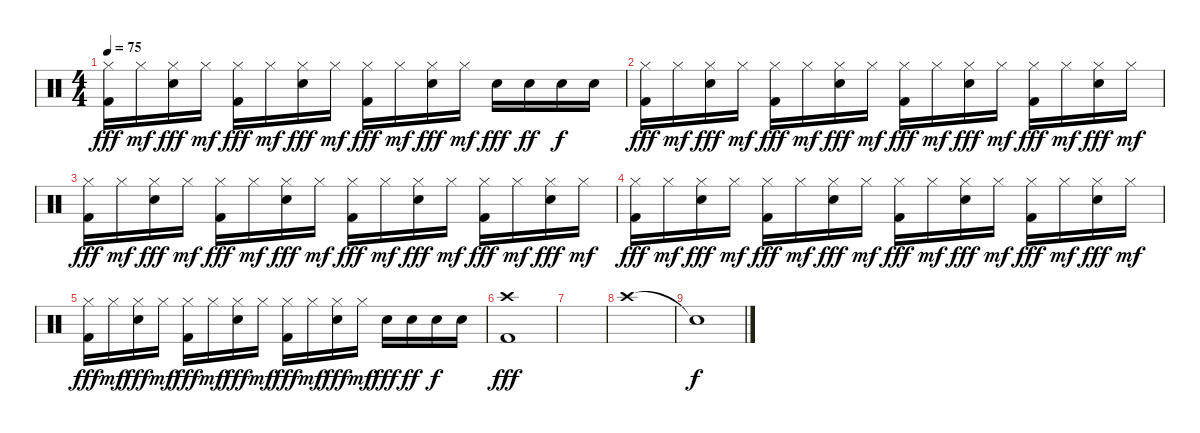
\track "" {instrument percussion}
\staff {score}
\articulation defaults
\ts (4 4)
\tempo 75
\clef neutral
\ks c
("Hi-Hat (closed)" "Kick (hit) 2").16{dy fff} "Hi-Hat (closed)".16{dy mf} ("Hi-Hat (closed)" "Snare (hit) 2").16{dy fff} "Hi-Hat (closed)".16{dy mf} ("Hi-Hat (closed)" "Kick (hit) 2").16{dy fff} "Hi-Hat (closed)".16{dy mf} ("Hi-Hat (closed)" "Snare (hit) 2").16{dy fff} "Hi-Hat (closed)".16{dy mf} ("Hi-Hat (closed)" "Kick (hit) 2").16{dy fff} "Hi-Hat (closed)".16{dy mf} ("Hi-Hat (closed)" "Snare (hit) 2").16{dy fff} "Hi-Hat (closed)".16{dy mf} "Snare (hit) 2".16{dy fff} "Snare (hit) 2".16{dy ff} "Snare (hit) 2".16{dy f} "Snare (hit) 2".16 |
("Hi-Hat (closed)" "Kick (hit) 2").16{dy fff} "Hi-Hat (closed)".16{dy mf} ("Hi-Hat (closed)" "Snare (hit) 2").16{dy fff} "Hi-Hat (closed)".16{dy mf} ("Hi-Hat (closed)" "Kick (hit) 2").16{dy fff} "Hi-Hat (closed)".16{dy mf} ("Hi-Hat (closed)" "Snare (hit) 2").16{dy fff} "Hi-Hat (closed)".16{dy mf} ("Hi-Hat (closed)" "Kick (hit) 2").16{dy fff} "Hi-Hat (closed)".16{dy mf} ("Hi-Hat (closed)" "Snare (hit) 2").16{dy fff} "Hi-Hat (closed)".16{txt "" dy mf} ("Hi-Hat (closed)" "Kick (hit) 2").16{dy fff} "Hi-Hat (closed)".16{dy mf} ("Hi-Hat (closed)" "Snare (hit) 2").16{dy fff} "Hi-Hat (closed)".16{dy mf} |
("Hi-Hat (closed)" "Kick (hit) 2").16{dy fff} "Hi-Hat (closed)".16{dy mf} ("Hi-Hat (closed)" "Snare (hit) 2").16{dy fff} "Hi-Hat (closed)".16{dy mf} ("Hi-Hat (closed)" "Kick (hit) 2").16{dy fff} "Hi-Hat (closed)".16{dy mf} ("Hi-Hat (closed)" "Snare (hit) 2").16{dy fff} "Hi-Hat (closed)".16{dy mf} ("Hi-Hat (closed)" "Kick (hit) 2").16{dy fff} "Hi-Hat (closed)".16{dy mf} ("Hi-Hat (closed)" "Snare (hit) 2").16{dy fff} "Hi-Hat (closed)".16{dy mf} ("Hi-Hat (closed)" "Kick (hit) 2").16{dy fff} "Hi-Hat (closed)".16{dy mf} ("Hi-Hat (closed)" "Snare (hit) 2").16{dy fff} "Hi-Hat (closed)".16{dy mf} |
("Hi-Hat (closed)" "Kick (hit) 2").16{dy fff} "Hi-Hat (closed)".16{dy mf} ("Hi-Hat (closed)" "Snare (hit) 2").16{dy fff} "Hi-Hat (closed)".16{dy mf} ("Hi-Hat (closed)" "Kick (hit) 2").16{dy fff} "Hi-Hat (closed)".16{dy mf} ("Hi-Hat (closed)" "Snare (hit) 2").16{dy fff} "Hi-Hat (closed)".16{dy mf} ("Hi-Hat (closed)" "Kick (hit) 2").16{dy fff} "Hi-Hat (closed)".16{dy mf} ("Hi-Hat (closed)" "Snare (hit) 2").16{dy fff} "Hi-Hat (closed)".16{dy mf} ("Hi-Hat (closed)" "Kick (hit) 2").16{dy fff} "Hi-Hat (closed)".16{dy mf} ("Hi-Hat (closed)" "Snare (hit) 2").16{dy fff} "Hi-Hat (closed)".16{dy mf} |
("Hi-Hat (closed)" "Kick (hit) 2").16{dy fff} "Hi-Hat (closed)".16{dy mf} ("Hi-Hat (closed)" "Snare (hit) 2").16{dy fff} "Hi-Hat (closed)".16{dy mf} ("Hi-Hat (closed)" "Kick (hit) 2").16{dy fff} "Hi-Hat (closed)".16{dy mf} ("Hi-Hat (closed)" "Snare (hit) 2").16{dy fff} "Hi-Hat (closed)".16{dy mf} ("Hi-Hat (closed)" "Kick (hit) 2").16{dy fff} "Hi-Hat (closed)".16{dy mf} ("Hi-Hat (closed)" "Snare (hit) 2").16{dy fff} "Hi-Hat (closed)".16{dy mf} "Snare (hit) 2".16{dy fff} "Snare (hit) 2".16{dy ff} "Snare (hit) 2".16{dy f} "Snare (hit) 2".16 |
("Crash high (hit)" "Kick (hit) 2").1{dy fff} |
|
"Crash high (hit)".1 |
"Snare (hit)"{t}.1{dy f}
